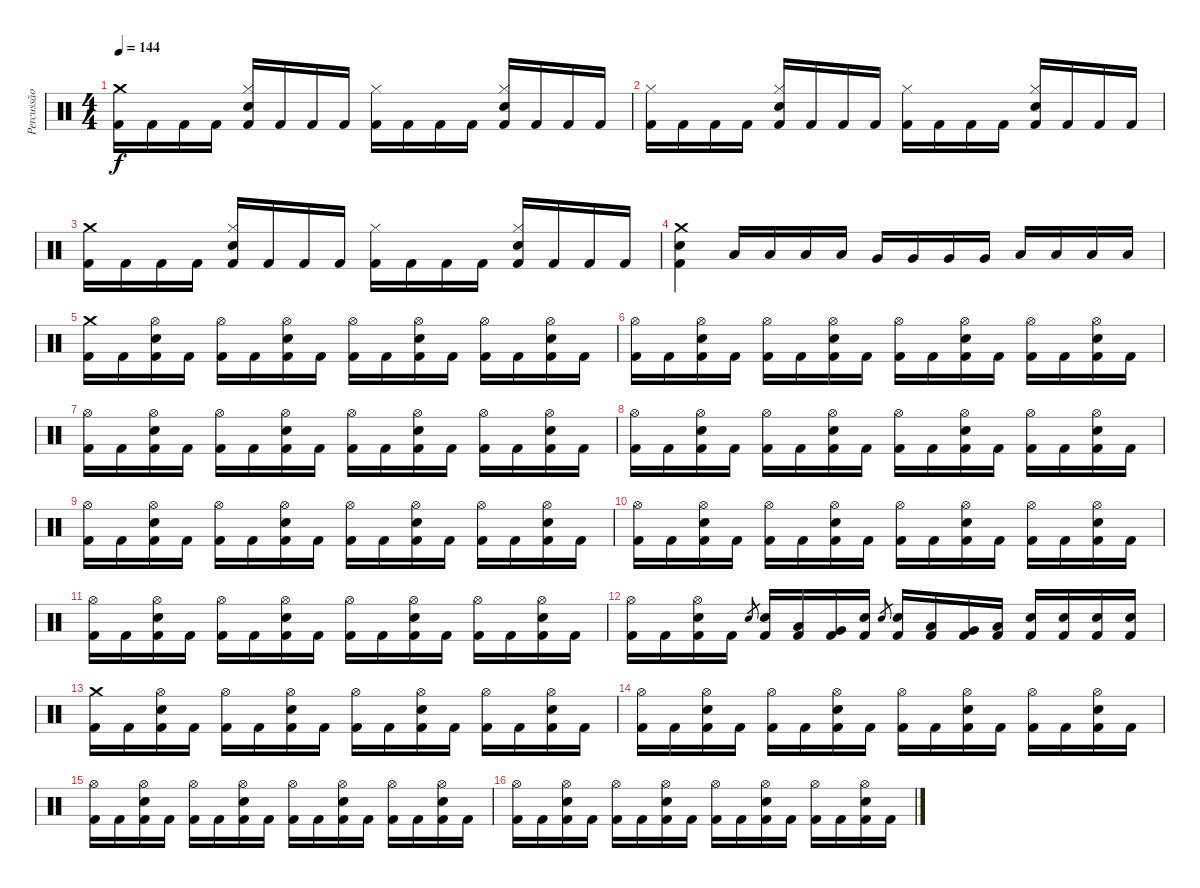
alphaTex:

\track ("Percussão" "Percussão") {instrument percussion}
\staff {score}
\articulation defaults
\ts (4 4)
\tempo 144
\clef neutral
\ks c
("Crash medium (hit)" "Kick (hit) 2").16{dy f} "Kick (hit) 2".16 "Kick (hit) 2".16 "Kick (hit) 2".16 ("Hi-Hat (closed)" "Electric Snare (hit)" "Kick (hit) 2").16 "Kick (hit) 2".16 "Kick (hit) 2".16 "Kick (hit) 2".16 ("Hi-Hat (closed)" "Kick (hit) 2").16 "Kick (hit) 2".16 "Kick (hit) 2".16 "Kick (hit) 2".16 ("Hi-Hat (closed)" "Electric Snare (hit)" "Kick (hit) 2").16 "Kick (hit) 2".16 "Kick (hit) 2".16 "Kick (hit) 2".16 |
("Hi-Hat (closed)" "Kick (hit) 2").16 "Kick (hit) 2".16 "Kick (hit) 2".16 "Kick (hit) 2".16 ("Hi-Hat (closed)" "Electric Snare (hit)" "Kick (hit) 2").16 "Kick (hit) 2".16 "Kick (hit) 2".16 "Kick (hit) 2".16 ("Hi-Hat (closed)" "Kick (hit) 2").16 "Kick (hit) 2".16 "Kick (hit) 2".16 "Kick (hit) 2".16 ("Hi-Hat (closed)" "Electric Snare (hit)" "Kick (hit) 2").16 "Kick (hit) 2".16 "Kick (hit) 2".16 "Kick (hit) 2".16 |
("Crash medium (hit)" "Kick (hit) 2").16 "Kick (hit) 2".16 "Kick (hit) 2".16 "Kick (hit) 2".16 ("Hi-Hat (closed)" "Electric Snare (hit)" "Kick (hit) 2").16 "Kick (hit) 2".16 "Kick (hit) 2".16 "Kick (hit) 2".16 ("Hi-Hat (closed)" "Kick (hit) 2").16 "Kick (hit) 2".16 "Kick (hit) 2".16 "Kick (hit) 2".16 ("Hi-Hat (closed)" "Electric Snare (hit)" "Kick (hit) 2").16 "Kick (hit) 2".16 "Kick (hit) 2".16 "Kick (hit) 2".16 |
("Crash medium (hit)" "Electric Snare (hit)" "Kick (hit) 2").4 "Low Tom (hit)".16 "Low Tom (hit)".16 "Low Tom (hit)".16 "Low Tom (hit)".16 "Very Low Tom (hit)".16 "Very Low Tom (hit)".16 "Very Low Tom (hit)".16 "Very Low Tom (hit)".16 "Low Floor Tom (hit)".16 "Low Floor Tom (hit)".16 "Low Floor Tom (hit)".16 "Low Floor Tom (hit)".16 |
("Crash medium (hit)" "Kick (hit) 2").16 "Kick (hit) 2".16 ("Hi-Hat (open)" "Electric Snare (hit)" "Kick (hit) 2").16 "Kick (hit) 2".16 ("Hi-Hat (open)" "Kick (hit) 2").16 "Kick (hit) 2".16 ("Hi-Hat (open)" "Electric Snare (hit)" "Kick (hit) 2").16 "Kick (hit) 2".16 ("Hi-Hat (open)" "Kick (hit) 2").16 "Kick (hit) 2".16 ("Hi-Hat (open)" "Electric Snare (hit)" "Kick (hit) 2").16 "Kick (hit) 2".16 ("Hi-Hat (open)" "Kick (hit) 2").16 "Kick (hit) 2".16 ("Hi-Hat (open)" "Electric Snare (hit)" "Kick (hit) 2").16 "Kick (hit) 2".16 |
("Hi-Hat (open)" "Kick (hit) 2").16 "Kick (hit) 2".16 ("Hi-Hat (open)" "Electric Snare (hit)" "Kick (hit) 2").16 "Kick (hit) 2".16 ("Hi-Hat (open)" "Kick (hit) 2").16 "Kick (hit) 2".16 ("Hi-Hat (open)" "Electric Snare (hit)" "Kick (hit) 2").16 "Kick (hit) 2".16 ("Hi-Hat (open)" "Kick (hit) 2").16 "Kick (hit) 2".16 ("Hi-Hat (open)" "Electric Snare (hit)" "Kick (hit) 2").16 "Kick (hit) 2".16 ("Hi-Hat (open)" "Kick (hit) 2").16 "Kick (hit) 2".16 ("Hi-Hat (open)" "Electric Snare (hit)" "Kick (hit) 2").16 "Kick (hit) 2".16 |
("Hi-Hat (open)" "Kick (hit) 2").16 "Kick (hit) 2".16 ("Hi-Hat (open)" "Electric Snare (hit)" "Kick (hit) 2").16 "Kick (hit) 2".16 ("Hi-Hat (open)" "Kick (hit) 2").16 "Kick (hit) 2".16 ("Hi-Hat (open)" "Electric Snare (hit)" "Kick (hit) 2").16 "Kick (hit) 2".16 ("Hi-Hat (open)" "Kick (hit) 2").16 "Kick (hit) 2".16 ("Hi-Hat (open)" "Electric Snare (hit)" "Kick (hit) 2").16 "Kick (hit) 2".16 ("Hi-Hat (open)" "Kick (hit) 2").16 "Kick (hit) 2".16 ("Hi-Hat (open)" "Electric Snare (hit)" "Kick (hit) 2").16 "Kick (hit) 2".16 |
("Hi-Hat (open)" "Kick (hit) 2").16 "Kick (hit) 2".16 ("Hi-Hat (open)" "Electric Snare (hit)" "Kick (hit) 2").16 "Kick (hit) 2".16 ("Hi-Hat (open)" "Kick (hit) 2").16 "Kick (hit) 2".16 ("Hi-Hat (open)" "Electric Snare (hit)" "Kick (hit) 2").16 "Kick (hit) 2".16 ("Hi-Hat (open)" "Kick (hit) 2").16 "Kick (hit) 2".16 ("Hi-Hat (open)" "Electric Snare (hit)" "Kick (hit) 2").16 "Kick (hit) 2".16 ("Hi-Hat (open)" "Kick (hit) 2").16 "Kick (hit) 2".16 ("Hi-Hat (open)" "Electric Snare (hit)" "Kick (hit) 2").16 "Kick (hit) 2".16 |
("Hi-Hat (open)" "Kick (hit) 2").16 "Kick (hit) 2".16 ("Hi-Hat (open)" "Electric Snare (hit)" "Kick (hit) 2").16 "Kick (hit) 2".16 ("Hi-Hat (open)" "Kick (hit) 2").16 "Kick (hit) 2".16 ("Hi-Hat (open)" "Electric Snare (hit)" "Kick (hit) 2").16 "Kick (hit) 2".16 ("Hi-Hat (open)" "Kick (hit) 2").16 "Kick (hit) 2".16 ("Hi-Hat (open)" "Electric Snare (hit)" "Kick (hit) 2").16 "Kick (hit) 2".16 ("Hi-Hat (open)" "Kick (hit) 2").16 "Kick (hit) 2".16 ("Hi-Hat (open)" "Electric Snare (hit)" "Kick (hit) 2").16 "Kick (hit) 2".16 |
("Hi-Hat (open)" "Kick (hit) 2").16 "Kick (hit) 2".16 ("Hi-Hat (open)" "Electric Snare (hit)" "Kick (hit) 2").16 "Kick (hit) 2".16 ("Hi-Hat (open)" "Kick (hit) 2").16 "Kick (hit) 2".16 ("Hi-Hat (open)" "Electric Snare (hit)" "Kick (hit) 2").16 "Kick (hit) 2".16 ("Hi-Hat (open)" "Kick (hit) 2").16 "Kick (hit) 2".16 ("Hi-Hat (open)" "Electric Snare (hit)" "Kick (hit) 2").16 "Kick (hit) 2".16 ("Hi-Hat (open)" "Kick (hit) 2").16 "Kick (hit) 2".16 ("Hi-Hat (open)" "Electric Snare (hit)" "Kick (hit) 2").16 "Kick (hit) 2".16 |
("Hi-Hat (open)" "Kick (hit) 2").16 "Kick (hit) 2".16 ("Hi-Hat (open)" "Electric Snare (hit)" "Kick (hit) 2").16 "Kick (hit) 2".16 ("Hi-Hat (open)" "Kick (hit) 2").16 "Kick (hit) 2".16 ("Hi-Hat (open)" "Electric Snare (hit)" "Kick (hit) 2").16 "Kick (hit) 2".16 ("Hi-Hat (open)" "Kick (hit) 2").16 "Kick (hit) 2".16 ("Hi-Hat (open)" "Electric Snare (hit)" "Kick (hit) 2").16 "Kick (hit) 2".16 ("Hi-Hat (open)" "Kick (hit) 2").16 "Kick (hit) 2".16 ("Hi-Hat (open)" "Electric Snare (hit)" "Kick (hit) 2").16 "Kick (hit) 2".16 |
("Hi-Hat (open)" "Kick (hit) 2").16 "Kick (hit) 2".16 ("Hi-Hat (open)" "Electric Snare (hit)" "Kick (hit) 2").16 "Kick (hit) 2".16 "Electric Snare (hit)".8{gr} ("Electric Snare (hit)" "Kick (hit) 2").16 ("Low Tom (hit)" "Kick (hit) 2").16 ("Very Low Tom (hit)" "Kick (hit) 2").16 ("Snare (hit)" "Kick (hit) 2").16 "Electric Snare (hit)".8{gr} ("Electric Snare (hit)" "Kick (hit) 2").16 ("Low Tom (hit)" "Kick (hit) 2").16 ("Very Low Tom (hit)" "Kick (hit) 2").16 ("Low Floor Tom (hit)" "Kick (hit) 2").16 ("Electric Snare (hit)" "Kick (hit) 2").16 ("Electric Snare (hit)" "Kick (hit) 2").16 ("Electric Snare (hit)" "Kick (hit) 2").16 ("Electric Snare (hit)" "Kick (hit) 2").16 |
("Crash medium (hit)" "Kick (hit) 2").16 "Kick (hit) 2".16 ("Hi-Hat (open)" "Electric Snare (hit)" "Kick (hit) 2").16 "Kick (hit) 2".16 ("Hi-Hat (open)" "Kick (hit) 2").16 "Kick (hit) 2".16 ("Hi-Hat (open)" "Electric Snare (hit)" "Kick (hit) 2").16 "Kick (hit) 2".16 ("Hi-Hat (open)" "Kick (hit) 2").16 "Kick (hit) 2".16 ("Hi-Hat (open)" "Electric Snare (hit)" "Kick (hit) 2").16 "Kick (hit) 2".16 ("Hi-Hat (open)" "Kick (hit) 2").16 "Kick (hit) 2".16 ("Hi-Hat (open)" "Electric Snare (hit)" "Kick (hit) 2").16 "Kick (hit) 2".16 |
("Hi-Hat (open)" "Kick (hit) 2").16 "Kick (hit) 2".16 ("Hi-Hat (open)" "Electric Snare (hit)" "Kick (hit) 2").16 "Kick (hit) 2".16 ("Hi-Hat (open)" "Kick (hit) 2").16 "Kick (hit) 2".16 ("Hi-Hat (open)" "Electric Snare (hit)" "Kick (hit) 2").16 "Kick (hit) 2".16 ("Hi-Hat (open)" "Kick (hit) 2").16 "Kick (hit) 2".16 ("Hi-Hat (open)" "Electric Snare (hit)" "Kick (hit) 2").16 "Kick (hit) 2".16 ("Hi-Hat (open)" "Kick (hit) 2").16 "Kick (hit) 2".16 ("Hi-Hat (open)" "Electric Snare (hit)" "Kick (hit) 2").16 "Kick (hit) 2".16 |
("Hi-Hat (open)" "Kick (hit) 2").16 "Kick (hit) 2".16 ("Hi-Hat (open)" "Electric Snare (hit)" "Kick (hit) 2").16 "Kick (hit) 2".16 ("Hi-Hat (open)" "Kick (hit) 2").16 "Kick (hit) 2".16 ("Hi-Hat (open)" "Electric Snare (hit)" "Kick (hit) 2").16 "Kick (hit) 2".16 ("Hi-Hat (open)" "Kick (hit) 2").16 "Kick (hit) 2".16 ("Hi-Hat (open)" "Electric Snare (hit)" "Kick (hit) 2").16 "Kick (hit) 2".16 ("Hi-Hat (open)" "Kick (hit) 2").16 "Kick (hit) 2".16 ("Hi-Hat (open)" "Electric Snare (hit)" "Kick (hit) 2").16 "Kick (hit) 2".16 |
("Hi-Hat (open)" "Kick (hit) 2").16 "Kick (hit) 2".16 ("Hi-Hat (open)" "Electric Snare (hit)" "Kick (hit) 2").16 "Kick (hit) 2".16 ("Hi-Hat (open)" "Kick (hit) 2").16 "Kick (hit) 2".16 ("Hi-Hat (open)" "Electric Snare (hit)" "Kick (hit) 2").16 "Kick (hit) 2".16 ("Hi-Hat (open)" "Kick (hit) 2").16 "Kick (hit) 2".16 ("Hi-Hat (open)" "Electric Snare (hit)" "Kick (hit) 2").16 "Kick (hit) 2".16 ("Hi-Hat (open)" "Kick (hit) 2").16 "Kick (hit) 2".16 ("Hi-Hat (open)" "Electric Snare (hit)" "Kick (hit) 2").16 "Kick (hit) 2".16
